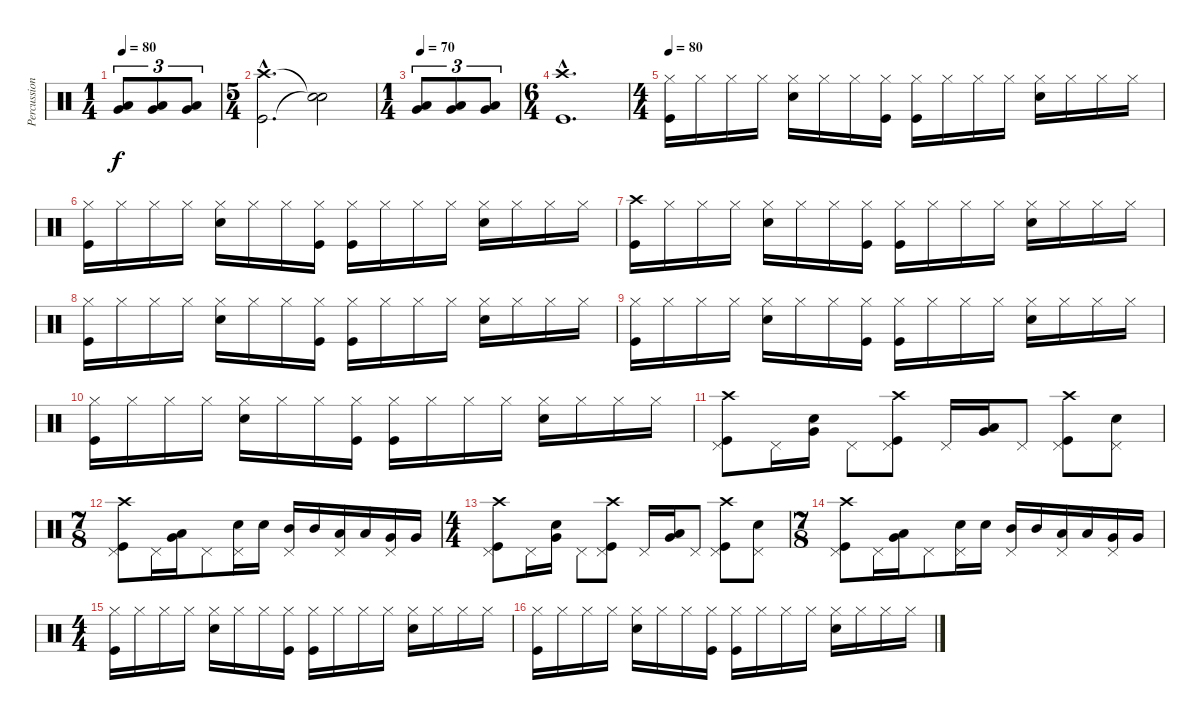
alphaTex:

\track ("Percussion" "Percussion") {instrument percussion}
\staff {score}
\articulation defaults
\ts (1 4)
\tempo 80
\clef neutral
\ks c
("Low Tom (hit)" "Very Low Tom (hit)").8{tu (3 2) dy f} ("Low Tom (hit)" "Very Low Tom (hit)").8{tu (3 2)} ("Low Tom (hit)" "Very Low Tom (hit)").8{tu (3 2)} |
\ts (5 4)
("Crash high (hit)"{hac} "Kick (hit)"{hac}).2{d} ("Snare (hit)"{t} "Snare (hit)"{t}).2 |
\ts (1 4)
\tempo 70
("Low Tom (hit)" "Very Low Tom (hit)").8{tu (3 2)} ("Low Tom (hit)" "Very Low Tom (hit)").8{tu (3 2)} ("Low Tom (hit)" "Very Low Tom (hit)").8{tu (3 2)} |
\ts (6 4)
("Crash high (hit)"{hac} "Kick (hit)"{hac}).1{d} |
\ts (4 4)
\tempo 80
("Hi-Hat (closed)" "Kick (hit)").16 "Hi-Hat (closed)".16 "Hi-Hat (closed)".16 "Hi-Hat (closed)".16 ("Hi-Hat (closed)" "Snare (hit) 2").16 "Hi-Hat (closed)".16 "Hi-Hat (closed)".16 ("Hi-Hat (closed)" "Kick (hit)").16 ("Hi-Hat (closed)" "Kick (hit)").16 "Hi-Hat (closed)".16 "Hi-Hat (closed)".16 "Hi-Hat (closed)".16 ("Hi-Hat (closed)" "Snare (hit) 2").16 "Hi-Hat (closed)".16 "Hi-Hat (closed)".16 "Hi-Hat (closed)".16 |
("Hi-Hat (closed)" "Kick (hit)").16 "Hi-Hat (closed)".16 "Hi-Hat (closed)".16 "Hi-Hat (closed)".16 ("Hi-Hat (closed)" "Snare (hit) 2").16 "Hi-Hat (closed)".16 "Hi-Hat (closed)".16 ("Hi-Hat (closed)" "Kick (hit)").16 ("Hi-Hat (closed)" "Kick (hit)").16 "Hi-Hat (closed)".16 "Hi-Hat (closed)".16 "Hi-Hat (closed)".16 ("Hi-Hat (closed)" "Snare (hit) 2").16 "Hi-Hat (closed)".16 "Hi-Hat (closed)".16 "Hi-Hat (closed)".16 |
("Crash high (hit)" "Kick (hit)").16 "Hi-Hat (closed)".16 "Hi-Hat (closed)".16 "Hi-Hat (closed)".16 ("Hi-Hat (closed)" "Snare (hit) 2").16 "Hi-Hat (closed)".16 "Hi-Hat (closed)".16 ("Hi-Hat (closed)" "Kick (hit)").16 ("Hi-Hat (closed)" "Kick (hit)").16 "Hi-Hat (closed)".16 "Hi-Hat (closed)".16 "Hi-Hat (closed)".16 ("Hi-Hat (closed)" "Snare (hit) 2").16 "Hi-Hat (closed)".16 "Hi-Hat (closed)".16 "Hi-Hat (closed)".16 |
("Hi-Hat (closed)" "Kick (hit)").16 "Hi-Hat (closed)".16 "Hi-Hat (closed)".16 "Hi-Hat (closed)".16 ("Hi-Hat (closed)" "Snare (hit) 2").16 "Hi-Hat (closed)".16 "Hi-Hat (closed)".16 ("Hi-Hat (closed)" "Kick (hit)").16 ("Hi-Hat (closed)" "Kick (hit)").16 "Hi-Hat (closed)".16 "Hi-Hat (closed)".16 "Hi-Hat (closed)".16 ("Hi-Hat (closed)" "Snare (hit) 2").16 "Hi-Hat (closed)".16 "Hi-Hat (closed)".16 "Hi-Hat (closed)".16 |
("Hi-Hat (closed)" "Kick (hit)").16 "Hi-Hat (closed)".16 "Hi-Hat (closed)".16 "Hi-Hat (closed)".16 ("Hi-Hat (closed)" "Snare (hit) 2").16 "Hi-Hat (closed)".16 "Hi-Hat (closed)".16 ("Hi-Hat (closed)" "Kick (hit)").16 ("Hi-Hat (closed)" "Kick (hit)").16 "Hi-Hat (closed)".16 "Hi-Hat (closed)".16 "Hi-Hat (closed)".16 ("Hi-Hat (closed)" "Snare (hit) 2").16 "Hi-Hat (closed)".16 "Hi-Hat (closed)".16 "Hi-Hat (closed)".16 |
("Hi-Hat (closed)" "Kick (hit)").16 "Hi-Hat (closed)".16 "Hi-Hat (closed)".16 "Hi-Hat (closed)".16 ("Hi-Hat (closed)" "Snare (hit) 2").16 "Hi-Hat (closed)".16 "Hi-Hat (closed)".16 ("Hi-Hat (closed)" "Kick (hit)").16 ("Hi-Hat (closed)" "Kick (hit)").16 "Hi-Hat (closed)".16 "Hi-Hat (closed)".16 "Hi-Hat (closed)".16 ("Hi-Hat (closed)" "Snare (hit) 2").16 "Hi-Hat (closed)".16 "Hi-Hat (closed)".16 "Hi-Hat (closed)".16 |
("Pedal Hi-Hat (hit)" "Crash high (hit)" "Kick (hit)").8 "Pedal Hi-Hat (hit)".16 ("Snare (hit) 2" "Very Low Tom (hit)").16 "Pedal Hi-Hat (hit)".8 ("Pedal Hi-Hat (hit)" "Crash high (hit)" "Kick (hit)").8 "Pedal Hi-Hat (hit)".16 ("Low Tom (hit)" "Very Low Tom (hit)").16 "Pedal Hi-Hat (hit)".8 ("Pedal Hi-Hat (hit)" "Crash high (hit)" "Kick (hit)").8 ("Pedal Hi-Hat (hit)" "Snare (hit) 2").8 |
\ts (7 8)
("Crash high (hit)" "Pedal Hi-Hat (hit)" "Kick (hit)").8 "Pedal Hi-Hat (hit)".16 ("Low Tom (hit)" "Very Low Tom (hit)").16 "Pedal Hi-Hat (hit)".8 ("Pedal Hi-Hat (hit)" "Snare (hit) 2").16 "Snare (hit) 2".16 ("Pedal Hi-Hat (hit)" "Mid Tom (hit)").16 "Mid Tom (hit)".16 ("Pedal Hi-Hat (hit)" "Low Tom (hit)").16 "Low Tom (hit)".16 ("Pedal Hi-Hat (hit)" "Very Low Tom (hit)").16 "Very Low Tom (hit)".16 |
\ts (4 4)
("Pedal Hi-Hat (hit)" "Crash high (hit)" "Kick (hit)").8 "Pedal Hi-Hat (hit)".16 ("Snare (hit) 2" "Very Low Tom (hit)").16 "Pedal Hi-Hat (hit)".8 ("Pedal Hi-Hat (hit)" "Crash high (hit)" "Kick (hit)").8 "Pedal Hi-Hat (hit)".16 ("Low Tom (hit)" "Very Low Tom (hit)").16 "Pedal Hi-Hat (hit)".8 ("Pedal Hi-Hat (hit)" "Crash high (hit)" "Kick (hit)").8 ("Pedal Hi-Hat (hit)" "Snare (hit) 2").8 |
\ts (7 8)
("Crash high (hit)" "Pedal Hi-Hat (hit)" "Kick (hit)").8 "Pedal Hi-Hat (hit)".16 ("Low Tom (hit)" "Very Low Tom (hit)").16 "Pedal Hi-Hat (hit)".8 ("Pedal Hi-Hat (hit)" "Snare (hit) 2").16 "Snare (hit) 2".16 ("Pedal Hi-Hat (hit)" "Mid Tom (hit)").16 "Mid Tom (hit)".16 ("Pedal Hi-Hat (hit)" "Low Tom (hit)").16 "Low Tom (hit)".16 ("Pedal Hi-Hat (hit)" "Very Low Tom (hit)").16 "Very Low Tom (hit)".16 |
\ts (4 4)
("Hi-Hat (closed)" "Kick (hit)").16 "Hi-Hat (closed)".16 "Hi-Hat (closed)".16 "Hi-Hat (closed)".16 ("Hi-Hat (closed)" "Snare (hit) 2").16 "Hi-Hat (closed)".16 "Hi-Hat (closed)".16 ("Hi-Hat (closed)" "Kick (hit)").16 ("Hi-Hat (closed)" "Kick (hit)").16 "Hi-Hat (closed)".16 "Hi-Hat (closed)".16 "Hi-Hat (closed)".16 ("Hi-Hat (closed)" "Snare (hit) 2").16 "Hi-Hat (closed)".16 "Hi-Hat (closed)".16 "Hi-Hat (closed)".16 |
("Hi-Hat (closed)" "Kick (hit)").16 "Hi-Hat (closed)".16 "Hi-Hat (closed)".16 "Hi-Hat (closed)".16 ("Hi-Hat (closed)" "Snare (hit) 2").16 "Hi-Hat (closed)".16 "Hi-Hat (closed)".16 ("Hi-Hat (closed)" "Kick (hit)").16 ("Hi-Hat (closed)" "Kick (hit)").16 "Hi-Hat (closed)".16 "Hi-Hat (closed)".16 "Hi-Hat (closed)".16 ("Hi-Hat (closed)" "Snare (hit) 2").16 "Hi-Hat (closed)".16 "Hi-Hat (closed)".16 "Hi-Hat (closed)".16
